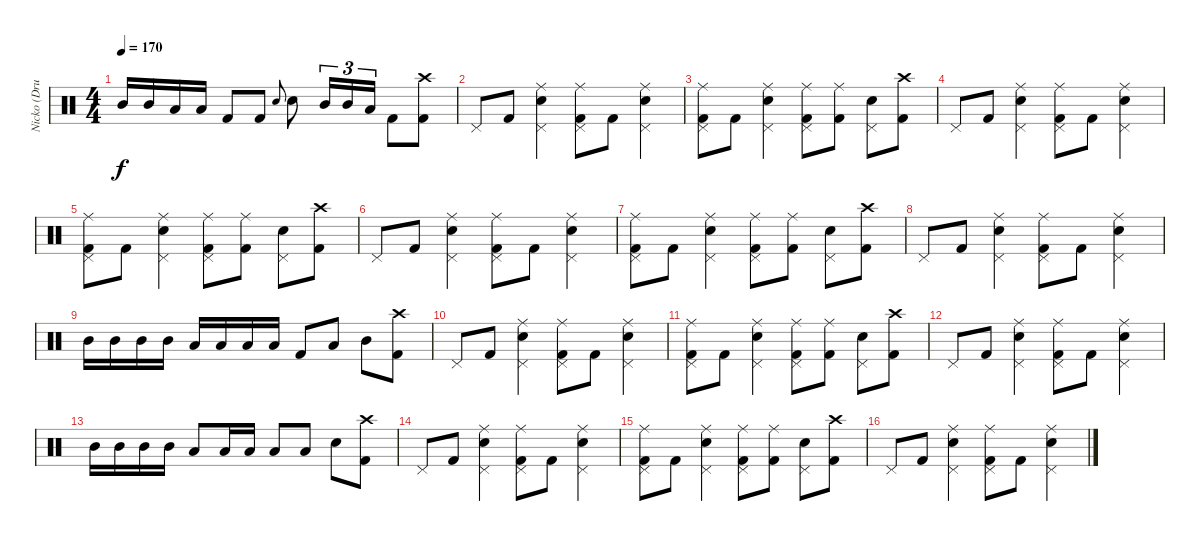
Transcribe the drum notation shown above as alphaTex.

\track ("Nicko (Drums)" "Nicko (Dru") {instrument percussion}
\staff {score}
\articulation defaults
\ts (4 4)
\tempo 170
\clef neutral
\ks c "Mid Tom (hit)".16{dy f} "Mid Tom (hit)".16 "Low Tom (hit)".16 "Low Tom (hit)".16 "Kick (hit) 2".8 "Kick (hit) 2".8 "Snare (hit) 2".8{gr onbeat} "Snare (hit) 2".8 "Mid Tom (hit)".16{tu (3 2)} "Mid Tom (hit)".16{tu (3 2)} "Low Tom (hit)".16{tu (3 2)} "Kick (hit) 2".8
("Crash high (hit)" "Kick (hit) 2").8 |
"Pedal Hi-Hat (hit)".8 "Kick (hit) 2".8 ("Ride (middle)" "Snare (hit) 2" "Pedal Hi-Hat (hit)").4 ("Ride (middle)" "Pedal Hi-Hat (hit)" "Kick (hit) 2").8 "Kick (hit) 2".8 ("Ride (middle)" "Snare (hit) 2" "Pedal Hi-Hat (hit)").4 |
("Ride (middle)" "Pedal Hi-Hat (hit)" "Kick (hit) 2").8 "Kick (hit) 2".8 ("Ride (middle)" "Snare (hit) 2" "Pedal Hi-Hat (hit)").4 ("Ride (middle)" "Pedal Hi-Hat (hit)" "Kick (hit) 2").8 ("Ride (middle)" "Kick (hit) 2").8 ("Snare (hit) 2" "Pedal Hi-Hat (hit)").8 ("Crash high (hit)" "Kick (hit) 2").8 |
"Pedal Hi-Hat (hit)".8 "Kick (hit) 2".8 ("Ride (middle)" "Snare (hit) 2" "Pedal Hi-Hat (hit)").4 ("Ride (middle)" "Pedal Hi-Hat (hit)" "Kick (hit) 2").8 "Kick (hit) 2".8 ("Ride (middle)" "Snare (hit) 2" "Pedal Hi-Hat (hit)").4 |
("Ride (middle)" "Pedal Hi-Hat (hit)" "Kick (hit) 2").8 "Kick (hit) 2".8 ("Ride (middle)" "Snare (hit) 2" "Pedal Hi-Hat (hit)").4 ("Ride (middle)" "Pedal Hi-Hat (hit)" "Kick (hit) 2").8 ("Ride (middle)" "Kick (hit) 2").8 ("Snare (hit) 2" "Pedal Hi-Hat (hit)").8 ("Crash high (hit)" "Kick (hit) 2").8 |
"Pedal Hi-Hat (hit)".8 "Kick (hit) 2".8 ("Ride (middle)" "Snare (hit) 2" "Pedal Hi-Hat (hit)").4 ("Ride (middle)" "Pedal Hi-Hat (hit)" "Kick (hit) 2").8 "Kick (hit) 2".8 ("Ride (middle)" "Snare (hit) 2" "Pedal Hi-Hat (hit)").4 |
("Ride (middle)" "Pedal Hi-Hat (hit)" "Kick (hit) 2").8 "Kick (hit) 2".8 ("Ride (middle)" "Snare (hit) 2" "Pedal Hi-Hat (hit)").4 ("Ride (middle)" "Pedal Hi-Hat (hit)" "Kick (hit) 2").8 ("Ride (middle)" "Kick (hit) 2").8 ("Snare (hit) 2" "Pedal Hi-Hat (hit)").8 ("Crash high (hit)" "Kick (hit) 2").8 |
"Pedal Hi-Hat (hit)".8 "Kick (hit) 2".8 ("Ride (middle)" "Snare (hit) 2" "Pedal Hi-Hat (hit)").4 ("Ride (middle)" "Pedal Hi-Hat (hit)" "Kick (hit) 2").8 "Kick (hit) 2".8 ("Ride (middle)" "Snare (hit) 2" "Pedal Hi-Hat (hit)").4 |
"Mid Tom (hit)".16 "Mid Tom (hit)".16 "Mid Tom (hit)".16 "Mid Tom (hit)".16 "Low Tom (hit)".16 "Low Tom (hit)".16 "Low Tom (hit)".16 "Low Tom (hit)".16 "Kick (hit) 2".8 "Low Floor Tom (hit)".8 "Mid Tom (hit)".8 ("Crash high (hit)" "Kick (hit) 2").8 |
"Pedal Hi-Hat (hit)".8 "Kick (hit) 2".8 ("Ride (middle)" "Snare (hit) 2" "Pedal Hi-Hat (hit)").4 ("Ride (middle)" "Pedal Hi-Hat (hit)" "Kick (hit) 2").8 "Kick (hit) 2".8 ("Ride (middle)" "Snare (hit) 2" "Pedal Hi-Hat (hit)").4 |
("Ride (middle)" "Pedal Hi-Hat (hit)" "Kick (hit) 2").8 "Kick (hit) 2".8 ("Ride (middle)" "Snare (hit) 2" "Pedal Hi-Hat (hit)").4 ("Ride (middle)" "Pedal Hi-Hat (hit)" "Kick (hit) 2").8 ("Ride (middle)" "Kick (hit) 2").8 ("Snare (hit) 2" "Pedal Hi-Hat (hit)").8 ("Crash high (hit)" "Kick (hit) 2").8 |
"Pedal Hi-Hat (hit)".8 "Kick (hit) 2".8 ("Ride (middle)" "Snare (hit) 2" "Pedal Hi-Hat (hit)").4 ("Ride (middle)" "Pedal Hi-Hat (hit)" "Kick (hit) 2").8 "Kick (hit) 2".8 ("Ride (middle)" "Snare (hit) 2" "Pedal Hi-Hat (hit)").4 |
"Mid Tom (hit)".16 "Mid Tom (hit)".16 "Mid Tom (hit)".16 "Mid Tom (hit)".16 "Low Tom (hit)".8 "Low Tom (hit)".16 "Low Tom (hit)".16 "Low Floor Tom (hit)".8 "Low Floor Tom (hit)".8 "Snare (hit) 2".8 ("Crash high (hit)" "Kick (hit) 2").8 |
"Pedal Hi-Hat (hit)".8 "Kick (hit) 2".8 ("Ride (middle)" "Snare (hit) 2" "Pedal Hi-Hat (hit)").4 ("Ride (middle)" "Pedal Hi-Hat (hit)" "Kick (hit) 2").8 "Kick (hit) 2".8 ("Ride (middle)" "Snare (hit) 2" "Pedal Hi-Hat (hit)").4 |
("Ride (middle)" "Pedal Hi-Hat (hit)" "Kick (hit) 2").8 "Kick (hit) 2".8 ("Ride (middle)" "Snare (hit) 2" "Pedal Hi-Hat (hit)").4 ("Ride (middle)" "Pedal Hi-Hat (hit)" "Kick (hit) 2").8 ("Ride (middle)" "Kick (hit) 2").8 ("Snare (hit) 2" "Pedal Hi-Hat (hit)").8 ("Crash high (hit)" "Kick (hit) 2").8 |
"Pedal Hi-Hat (hit)".8 "Kick (hit) 2".8 ("Ride (middle)" "Snare (hit) 2" "Pedal Hi-Hat (hit)").4 ("Ride (middle)" "Pedal Hi-Hat (hit)" "Kick (hit) 2").8 "Kick (hit) 2".8 ("Ride (middle)" "Snare (hit) 2" "Pedal Hi-Hat (hit)").4
